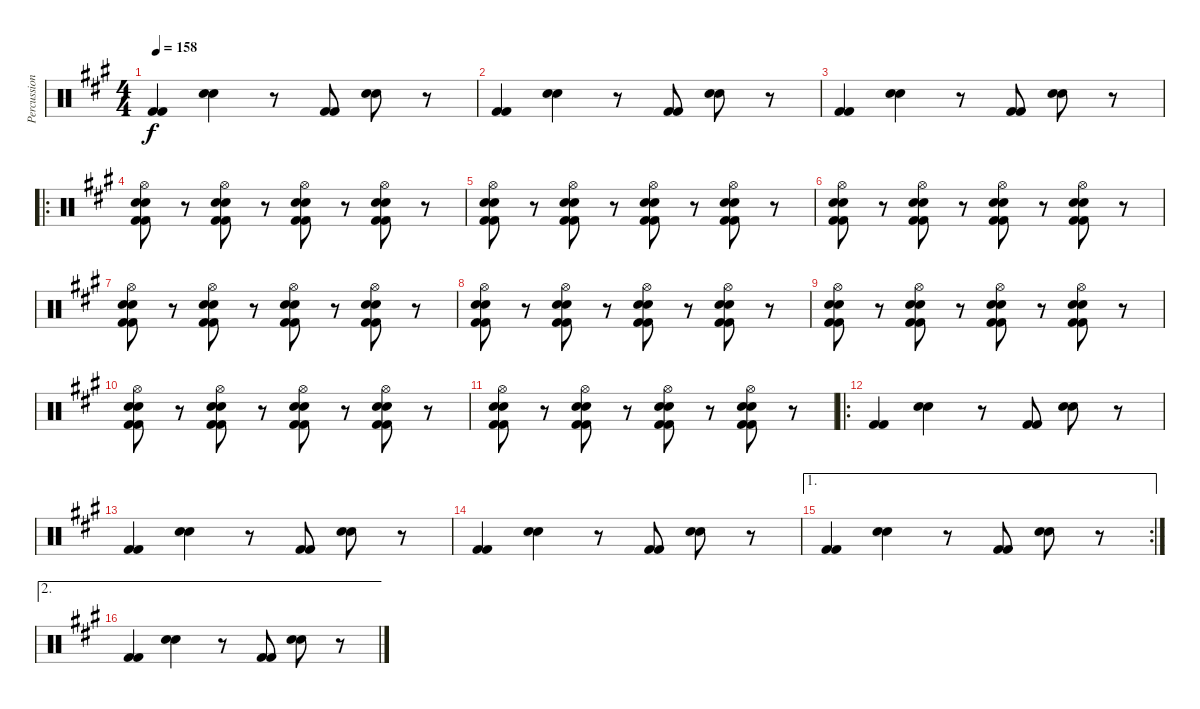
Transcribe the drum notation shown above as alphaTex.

\track ("Percussion" "Percussion") {instrument percussion}
\staff {score}
\articulation defaults
\ts (4 4)
\tempo 158
\clef neutral
\ks a
("Kick (hit) 2" "Kick (hit) 2").4{dy f} ("Snare (hit) 2" "Snare (hit) 2").4 r.8 ("Kick (hit) 2" "Kick (hit) 2").8 ("Snare (hit) 2" "Snare (hit) 2").8 r.8 |
("Kick (hit) 2" "Kick (hit) 2").4 ("Snare (hit) 2" "Snare (hit) 2").4 r.8 ("Kick (hit) 2" "Kick (hit) 2").8 ("Snare (hit) 2" "Snare (hit) 2").8 r.8 |
("Kick (hit) 2" "Kick (hit) 2").4 ("Snare (hit) 2" "Snare (hit) 2").4 r.8 ("Kick (hit) 2" "Kick (hit) 2").8 ("Snare (hit) 2" "Snare (hit) 2").8 r.8 |
\ro
("Electric Snare (hit)" "Kick (hit) 2" "Electric Snare (hit)" "Kick (hit) 2" "Hi-Hat (open)").8 r.8 ("Electric Snare (hit)" "Kick (hit) 2" "Electric Snare (hit)" "Kick (hit) 2" "Hi-Hat (open)").8 r.8 ("Electric Snare (hit)" "Kick (hit) 2" "Electric Snare (hit)" "Kick (hit) 2" "Hi-Hat (open)").8 r.8 ("Kick (hit) 2" "Electric Snare (hit)" "Electric Snare (hit)" "Kick (hit) 2" "Hi-Hat (open)").8 r.8 |
("Electric Snare (hit)" "Kick (hit) 2" "Electric Snare (hit)" "Kick (hit) 2" "Hi-Hat (open)").8 r.8 ("Electric Snare (hit)" "Kick (hit) 2" "Electric Snare (hit)" "Kick (hit) 2" "Hi-Hat (open)").8 r.8 ("Electric Snare (hit)" "Kick (hit) 2" "Electric Snare (hit)" "Kick (hit) 2" "Hi-Hat (open)").8 r.8 ("Kick (hit) 2" "Electric Snare (hit)" "Electric Snare (hit)" "Kick (hit) 2" "Hi-Hat (open)").8 r.8 |
("Electric Snare (hit)" "Kick (hit) 2" "Electric Snare (hit)" "Kick (hit) 2" "Hi-Hat (open)").8 r.8 ("Electric Snare (hit)" "Kick (hit) 2" "Electric Snare (hit)" "Kick (hit) 2" "Hi-Hat (open)").8 r.8 ("Electric Snare (hit)" "Kick (hit) 2" "Electric Snare (hit)" "Kick (hit) 2" "Hi-Hat (open)").8 r.8 ("Kick (hit) 2" "Electric Snare (hit)" "Electric Snare (hit)" "Kick (hit) 2" "Hi-Hat (open)").8 r.8 |
("Electric Snare (hit)" "Kick (hit) 2" "Electric Snare (hit)" "Kick (hit) 2" "Hi-Hat (open)").8 r.8 ("Electric Snare (hit)" "Kick (hit) 2" "Electric Snare (hit)" "Kick (hit) 2" "Hi-Hat (open)").8 r.8 ("Electric Snare (hit)" "Kick (hit) 2" "Electric Snare (hit)" "Kick (hit) 2" "Hi-Hat (open)").8 r.8 ("Kick (hit) 2" "Electric Snare (hit)" "Electric Snare (hit)" "Kick (hit) 2" "Hi-Hat (open)").8 r.8 |
("Electric Snare (hit)" "Kick (hit) 2" "Electric Snare (hit)" "Kick (hit) 2" "Hi-Hat (open)").8 r.8 ("Electric Snare (hit)" "Kick (hit) 2" "Electric Snare (hit)" "Kick (hit) 2" "Hi-Hat (open)").8 r.8 ("Electric Snare (hit)" "Kick (hit) 2" "Electric Snare (hit)" "Kick (hit) 2" "Hi-Hat (open)").8 r.8 ("Kick (hit) 2" "Electric Snare (hit)" "Electric Snare (hit)" "Kick (hit) 2" "Hi-Hat (open)").8 r.8 |
("Electric Snare (hit)" "Kick (hit) 2" "Electric Snare (hit)" "Kick (hit) 2" "Hi-Hat (open)").8 r.8 ("Electric Snare (hit)" "Kick (hit) 2" "Electric Snare (hit)" "Kick (hit) 2" "Hi-Hat (open)").8 r.8 ("Electric Snare (hit)" "Kick (hit) 2" "Electric Snare (hit)" "Kick (hit) 2" "Hi-Hat (open)").8 r.8 ("Kick (hit) 2" "Electric Snare (hit)" "Electric Snare (hit)" "Kick (hit) 2" "Hi-Hat (open)").8 r.8 |
("Electric Snare (hit)" "Kick (hit) 2" "Electric Snare (hit)" "Kick (hit) 2" "Hi-Hat (open)").8 r.8 ("Electric Snare (hit)" "Kick (hit) 2" "Electric Snare (hit)" "Kick (hit) 2" "Hi-Hat (open)").8 r.8 ("Electric Snare (hit)" "Kick (hit) 2" "Electric Snare (hit)" "Kick (hit) 2" "Hi-Hat (open)").8 r.8 ("Kick (hit) 2" "Electric Snare (hit)" "Electric Snare (hit)" "Kick (hit) 2" "Hi-Hat (open)").8 r.8 |
("Electric Snare (hit)" "Kick (hit) 2" "Electric Snare (hit)" "Kick (hit) 2" "Hi-Hat (open)").8 r.8 ("Electric Snare (hit)" "Kick (hit) 2" "Electric Snare (hit)" "Kick (hit) 2" "Hi-Hat (open)").8 r.8 ("Electric Snare (hit)" "Kick (hit) 2" "Electric Snare (hit)" "Kick (hit) 2" "Hi-Hat (open)").8 r.8 ("Kick (hit) 2" "Electric Snare (hit)" "Electric Snare (hit)" "Kick (hit) 2" "Hi-Hat (open)").8 r.8 |
\ro
("Kick (hit) 2" "Kick (hit) 2").4 ("Snare (hit) 2" "Snare (hit) 2").4 r.8 ("Kick (hit) 2" "Kick (hit) 2").8 ("Snare (hit) 2" "Snare (hit) 2").8 r.8 |
("Kick (hit) 2" "Kick (hit) 2").4 ("Snare (hit) 2" "Snare (hit) 2").4 r.8 ("Kick (hit) 2" "Kick (hit) 2").8 ("Snare (hit) 2" "Snare (hit) 2").8 r.8 |
("Kick (hit) 2" "Kick (hit) 2").4 ("Snare (hit) 2" "Snare (hit) 2").4 r.8 ("Kick (hit) 2" "Kick (hit) 2").8 ("Snare (hit) 2" "Snare (hit) 2").8 r.8 |
\ae 1
\rc 2
("Kick (hit) 2" "Kick (hit) 2").4 ("Snare (hit) 2" "Snare (hit) 2").4 r.8 ("Kick (hit) 2" "Kick (hit) 2").8 ("Snare (hit) 2" "Snare (hit) 2").8 r.8 |
\ae 2
("Kick (hit) 2" "Kick (hit) 2").4 ("Snare (hit) 2" "Snare (hit) 2").4 r.8 ("Kick (hit) 2" "Kick (hit) 2").8 ("Snare (hit) 2" "Snare (hit) 2").8 r.8
